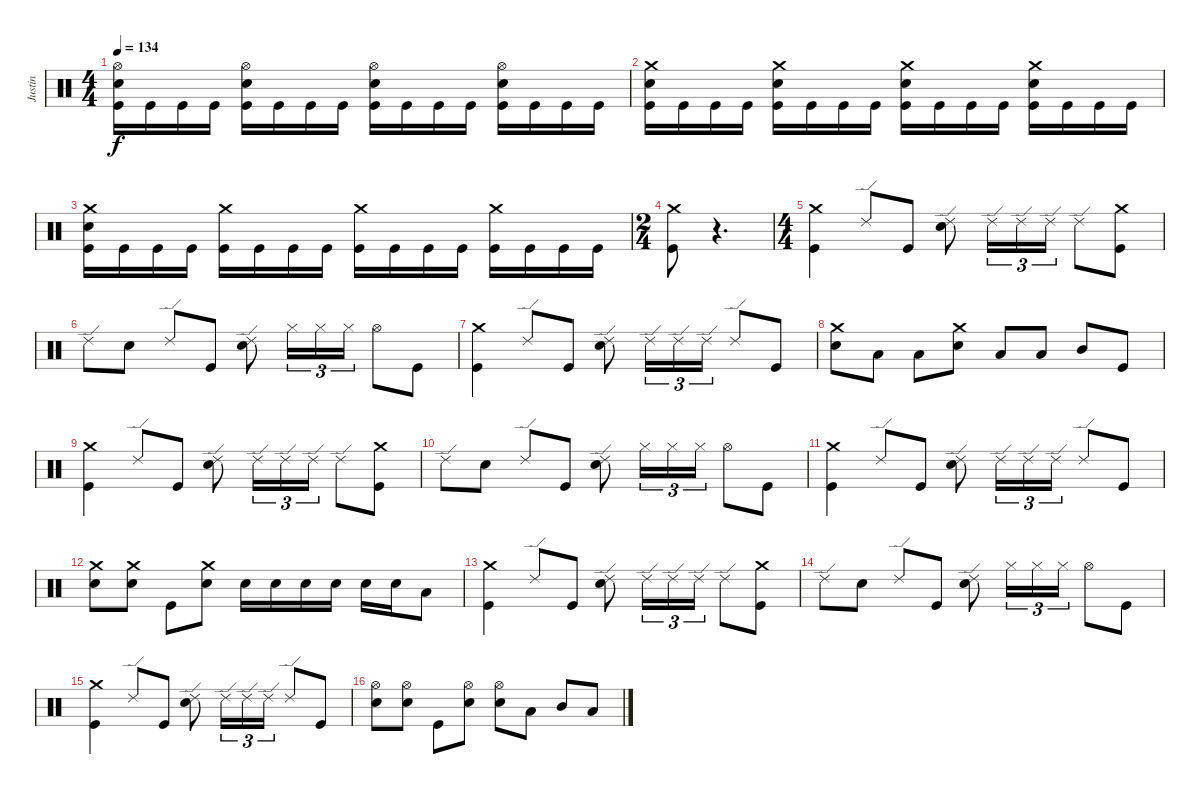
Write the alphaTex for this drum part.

\track ("Justin" "Justin") {instrument percussion}
\staff {score}
\articulation defaults
\ts (4 4)
\tempo 134
\clef neutral
\ks c
("Hi-Hat (open)" "Electric Snare (hit)" "Kick (hit)").16{dy f} "Kick (hit)".16 "Kick (hit)".16 "Kick (hit)".16 ("Hi-Hat (open)" "Electric Snare (hit)" "Kick (hit)").16 "Kick (hit)".16 "Kick (hit)".16 "Kick (hit)".16 ("Hi-Hat (open)" "Electric Snare (hit)" "Kick (hit)").16 "Kick (hit)".16 "Kick (hit)".16 "Kick (hit)".16 ("Hi-Hat (open)" "Electric Snare (hit)" "Kick (hit)").16 "Kick (hit)".16 "Kick (hit)".16 "Kick (hit)".16 |
("Crash medium (hit)" "Electric Snare (hit)" "Kick (hit)").16 "Kick (hit)".16 "Kick (hit)".16 "Kick (hit)".16 ("Crash medium (hit)" "Electric Snare (hit)" "Kick (hit)").16 "Kick (hit)".16 "Kick (hit)".16 "Kick (hit)".16 ("Crash medium (hit)" "Electric Snare (hit)" "Kick (hit)").16 "Kick (hit)".16 "Kick (hit)".16 "Kick (hit)".16 ("Crash medium (hit)" "Electric Snare (hit)" "Kick (hit)").16 "Kick (hit)".16 "Kick (hit)".16 "Kick (hit)".16 |
("Crash medium (hit)" "Electric Snare (hit)" "Kick (hit)").16 "Kick (hit)".16 "Kick (hit)".16 "Kick (hit)".16 ("Crash medium (hit)" "Kick (hit)").16 "Kick (hit)".16 "Kick (hit)".16 "Kick (hit)".16 ("Crash medium (hit)" "Kick (hit)").16 "Kick (hit)".16 "Kick (hit)".16 "Kick (hit)".16 ("Crash medium (hit)" "Kick (hit)").16 "Kick (hit)".16 "Kick (hit)".16 "Kick (hit)".16 |
\ts (2 4)
("Crash medium (hit)" "Kick (hit)").8 r.4{d volume 0} |
\ts (4 4)
("Crash medium (hit)" "Kick (hit)").4{volume 16} "Ride (edge) 2".8 "Kick (hit)".8 ("Ride (edge) 2" "Electric Snare (hit)").8 "Ride (edge) 2".16{tu (3 2)} "Ride (edge) 2".16{tu (3 2)} "Ride (edge) 2".16{tu (3 2)} "Ride (edge) 2".8 ("Crash medium (hit)" "Kick (hit)").8 |
"Ride (edge) 2".8 "Electric Snare (hit)".8 "Ride (edge) 2".8 "Kick (hit)".8 ("Ride (edge) 2" "Electric Snare (hit)").8 "Hi-Hat (closed)".16{tu (3 2)} "Hi-Hat (closed)".16{tu (3 2)} "Hi-Hat (closed)".16{tu (3 2)} "Hi-Hat (open)".8 "Kick (hit)".8 |
("Crash medium (hit)" "Kick (hit)").4 "Ride (edge) 2".8 "Kick (hit)".8 ("Ride (edge) 2" "Electric Snare (hit)").8 "Ride (edge) 2".16{tu (3 2)} "Ride (edge) 2".16{tu (3 2)} "Ride (edge) 2".16{tu (3 2)} "Ride (edge) 2".8 "Kick (hit)".8 |
("Crash medium (hit)" "Electric Snare (hit)").8 "Low Floor Tom (hit)".8 "Low Tom (hit)".8 ("Crash medium (hit)" "Electric Snare (hit)").8 "Low Floor Tom (hit)".8 "Low Tom (hit)".8 "Mid Tom (hit)".8 "Kick (hit)".8 |
("Crash medium (hit)" "Kick (hit)").4 "Ride (edge) 2".8 "Kick (hit)".8 ("Ride (edge) 2" "Electric Snare (hit)").8 "Ride (edge) 2".16{tu (3 2)} "Ride (edge) 2".16{tu (3 2)} "Ride (edge) 2".16{tu (3 2)} "Ride (edge) 2".8 ("Crash medium (hit)" "Kick (hit)").8 |
"Ride (edge) 2".8 "Electric Snare (hit)".8 "Ride (edge) 2".8 "Kick (hit)".8 ("Ride (edge) 2" "Electric Snare (hit)").8 "Hi-Hat (closed)".16{tu (3 2)} "Hi-Hat (closed)".16{tu (3 2)} "Hi-Hat (closed)".16{tu (3 2)} "Hi-Hat (open)".8 "Kick (hit)".8 |
("Crash medium (hit)" "Kick (hit)").4 "Ride (edge) 2".8 "Kick (hit)".8 ("Ride (edge) 2" "Electric Snare (hit)").8 "Ride (edge) 2".16{tu (3 2)} "Ride (edge) 2".16{tu (3 2)} "Ride (edge) 2".16{tu (3 2)} "Ride (edge) 2".8 "Kick (hit)".8 |
("Crash medium (hit)" "Electric Snare (hit)").8 ("Crash medium (hit)" "Electric Snare (hit)").8 "Kick (hit)".8 ("Crash medium (hit)" "Electric Snare (hit)").8 "Electric Snare (hit)".16 "Electric Snare (hit)".16 "Electric Snare (hit)".16 "Electric Snare (hit)".16 "Electric Snare (hit)".16 "Electric Snare (hit)".16 "Low Tom (hit)".8 |
("Crash medium (hit)" "Kick (hit)").4 "Ride (edge) 2".8 "Kick (hit)".8 ("Ride (edge) 2" "Electric Snare (hit)").8 "Ride (edge) 2".16{tu (3 2)} "Ride (edge) 2".16{tu (3 2)} "Ride (edge) 2".16{tu (3 2)} "Ride (edge) 2".8 ("Crash medium (hit)" "Kick (hit)").8 |
"Ride (edge) 2".8 "Electric Snare (hit)".8 "Ride (edge) 2".8 "Kick (hit)".8 ("Ride (edge) 2" "Electric Snare (hit)").8 "Hi-Hat (closed)".16{tu (3 2)} "Hi-Hat (closed)".16{tu (3 2)} "Hi-Hat (closed)".16{tu (3 2)} "Hi-Hat (open)".8 "Kick (hit)".8 |
("Crash medium (hit)" "Kick (hit)").4 "Ride (edge) 2".8 "Kick (hit)".8 ("Ride (edge) 2" "Electric Snare (hit)").8 "Ride (edge) 2".16{tu (3 2)} "Ride (edge) 2".16{tu (3 2)} "Ride (edge) 2".16{tu (3 2)} "Ride (edge) 2".8 "Kick (hit)".8 |
("Hi-Hat (open)" "Electric Snare (hit)").8 ("Hi-Hat (open)" "Electric Snare (hit)").8 "Kick (hit)".8 ("Hi-Hat (open)" "Electric Snare (hit)").8 ("Hi-Hat (open)" "Electric Snare (hit)").8 "Low Tom (hit)".8 "Mid Tom (hit)".8 "Low Floor Tom (hit)".8
